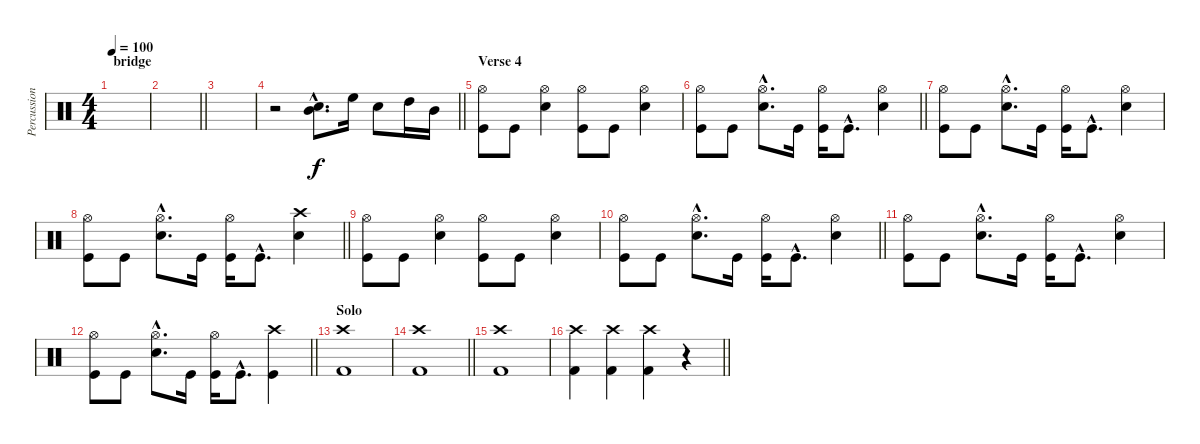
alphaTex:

\track ("Percussion" "Percussion") {instrument percussion}
\staff {score}
\articulation defaults
\ts (4 4)
\section ("" "bridge")
\tempo 100
\clef neutral
\ks c
|
\barLineRight lightlight
|
|
\barLineRight lightlight
r.2 ("Snare (hit) 2"{hac} "Mid Tom (hit)"{hac}).8{d} "High Floor Tom (hit)".16 "Snare (hit) 2".8 "High Tom (hit)".16 "Mid Tom (hit)".16 |
\section ("" "Verse 4")
("Hi-Hat (open)" "Kick (hit)").8 "Kick (hit)".8 ("Hi-Hat (open)" "Electric Snare (hit)").4 ("Hi-Hat (open)" "Kick (hit)").8 "Kick (hit)".8 ("Hi-Hat (open)" "Electric Snare (hit)").4 |
\barLineRight lightlight
("Hi-Hat (open)" "Kick (hit)").8 "Kick (hit)".8 ("Hi-Hat (open)"{hac} "Electric Snare (hit)"{hac}).8{d} "Kick (hit)".16 ("Hi-Hat (open)" "Kick (hit)").16 "Kick (hit)"{hac}.8{d} ("Hi-Hat (open)" "Electric Snare (hit)").4 |
("Hi-Hat (open)" "Kick (hit)").8 "Kick (hit)".8 ("Hi-Hat (open)"{hac} "Electric Snare (hit)"{hac}).8{d} "Kick (hit)".16 ("Hi-Hat (open)" "Kick (hit)").16 "Kick (hit)"{hac}.8{d} ("Hi-Hat (open)" "Electric Snare (hit)").4 |
\barLineRight lightlight
("Hi-Hat (open)" "Kick (hit)").8 "Kick (hit)".8 ("Hi-Hat (open)"{hac} "Electric Snare (hit)"{hac}).8{d} "Kick (hit)".16 ("Hi-Hat (open)" "Kick (hit)").16 "Kick (hit)"{hac}.8{d} ("Crash high (hit)" "Electric Snare (hit)").4 |
("Hi-Hat (open)" "Kick (hit)").8 "Kick (hit)".8 ("Hi-Hat (open)" "Electric Snare (hit)").4 ("Hi-Hat (open)" "Kick (hit)").8 "Kick (hit)".8 ("Hi-Hat (open)" "Electric Snare (hit)").4 |
\barLineRight lightlight
("Hi-Hat (open)" "Kick (hit)").8 "Kick (hit)".8 ("Hi-Hat (open)"{hac} "Electric Snare (hit)"{hac}).8{d} "Kick (hit)".16 ("Hi-Hat (open)" "Kick (hit)").16 "Kick (hit)"{hac}.8{d} ("Hi-Hat (open)" "Electric Snare (hit)").4 |
("Hi-Hat (open)" "Kick (hit)").8 "Kick (hit)".8 ("Hi-Hat (open)"{hac} "Electric Snare (hit)"{hac}).8{d} "Kick (hit)".16 ("Hi-Hat (open)" "Kick (hit)").16 "Kick (hit)"{hac}.8{d} ("Hi-Hat (open)" "Electric Snare (hit)").4 |
\barLineRight lightlight
("Hi-Hat (open)" "Kick (hit)").8 "Kick (hit)".8 ("Hi-Hat (open)"{hac} "Electric Snare (hit)"{hac}).8{d} "Kick (hit)".16 ("Hi-Hat (open)" "Kick (hit)").16 "Kick (hit)"{hac}.8{d} ("Crash high (hit)" "Kick (hit)").4 |
\section ("" "Solo")
("Crash high (hit)" "Kick (hit) 2").1 |
\barLineRight lightlight
("Crash high (hit)" "Kick (hit) 2").1 |
("Crash high (hit)" "Kick (hit) 2").1 |
\barLineRight lightlight
("Crash high (hit)" "Kick (hit) 2").4 ("Crash high (hit)" "Kick (hit) 2").4 ("Crash high (hit)" "Kick (hit) 2").4 r.4
